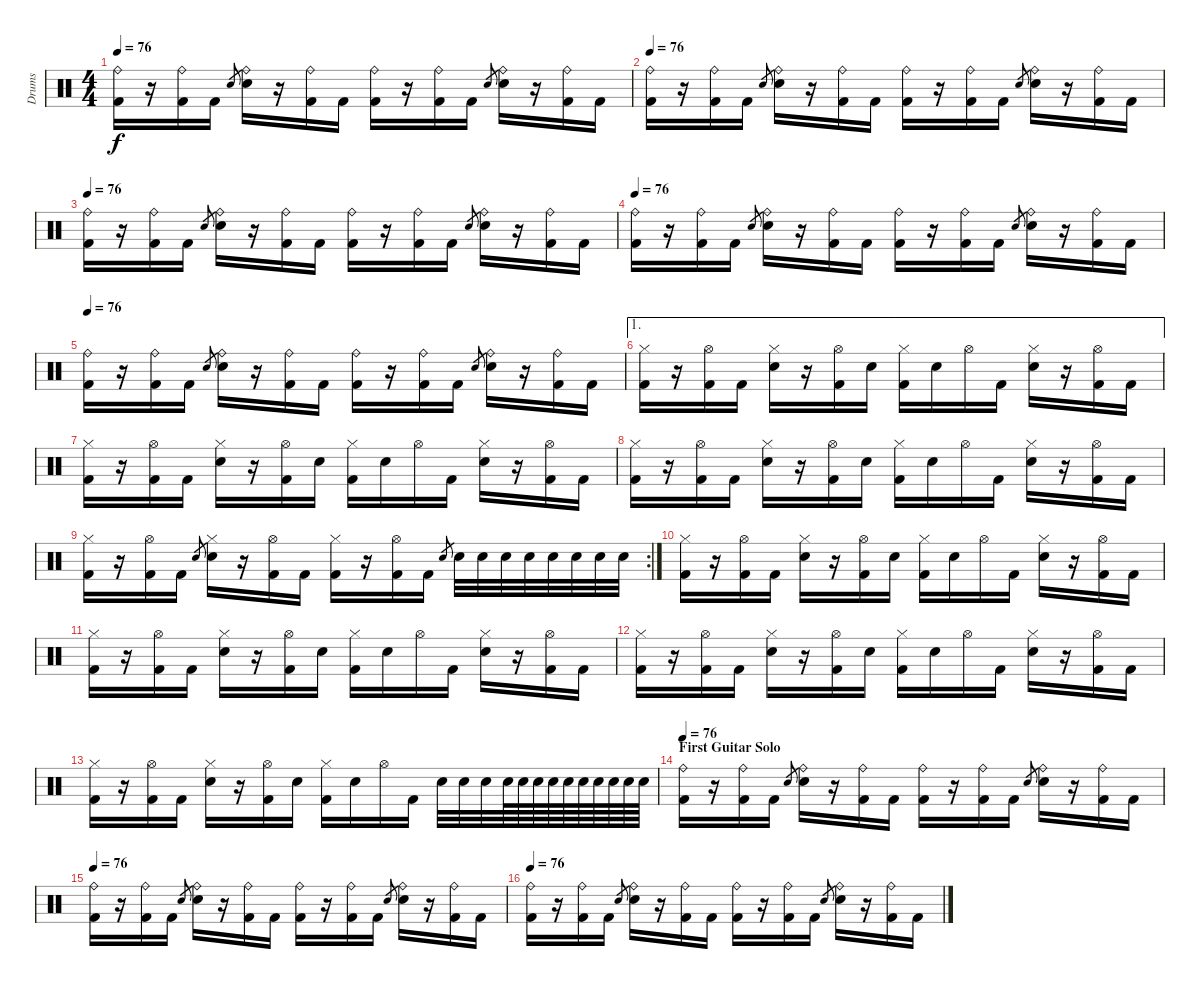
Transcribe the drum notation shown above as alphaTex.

\track ("Drums" "Drums") {instrument percussion}
\staff {score}
\articulation defaults
\ts (4 4)
\tempo 76
\clef neutral
\ks c
("Ride (bell)" "Kick (hit) 2").16{dy f} r.16 ("Ride (bell)" "Kick (hit) 2").16 "Kick (hit) 2".16 "Electric Snare (hit)".8{gr} ("Ride (bell)" "Electric Snare (hit)").16 r.16 ("Ride (bell)" "Kick (hit) 2").16 "Kick (hit) 2".16 ("Ride (bell)" "Kick (hit) 2").16 r.16 ("Ride (bell)" "Kick (hit) 2").16 "Kick (hit) 2".16 "Electric Snare (hit)".8{gr} ("Ride (bell)" "Electric Snare (hit)").16 r.16 ("Ride (bell)" "Kick (hit) 2").16 "Kick (hit) 2".16 |
\tempo 76
("Ride (bell)" "Kick (hit) 2").16 r.16 ("Ride (bell)" "Kick (hit) 2").16 "Kick (hit) 2".16 "Electric Snare (hit)".8{gr} ("Ride (bell)" "Electric Snare (hit)").16 r.16 ("Ride (bell)" "Kick (hit) 2").16 "Kick (hit) 2".16 ("Ride (bell)" "Kick (hit) 2").16 r.16 ("Ride (bell)" "Kick (hit) 2").16 "Kick (hit) 2".16 "Electric Snare (hit)".8{gr} ("Ride (bell)" "Electric Snare (hit)").16 r.16 ("Ride (bell)" "Kick (hit) 2").16 "Kick (hit) 2".16 |
\tempo 76
("Ride (bell)" "Kick (hit) 2").16 r.16 ("Ride (bell)" "Kick (hit) 2").16 "Kick (hit) 2".16 "Electric Snare (hit)".8{gr} ("Ride (bell)" "Electric Snare (hit)").16 r.16 ("Ride (bell)" "Kick (hit) 2").16 "Kick (hit) 2".16 ("Ride (bell)" "Kick (hit) 2").16 r.16 ("Ride (bell)" "Kick (hit) 2").16 "Kick (hit) 2".16 "Electric Snare (hit)".8{gr} ("Ride (bell)" "Electric Snare (hit)").16 r.16 ("Ride (bell)" "Kick (hit) 2").16 "Kick (hit) 2".16 |
\tempo 76
("Ride (bell)" "Kick (hit) 2").16 r.16 ("Ride (bell)" "Kick (hit) 2").16 "Kick (hit) 2".16 "Electric Snare (hit)".8{gr} ("Ride (bell)" "Electric Snare (hit)").16 r.16 ("Ride (bell)" "Kick (hit) 2").16 "Kick (hit) 2".16 ("Ride (bell)" "Kick (hit) 2").16 r.16 ("Ride (bell)" "Kick (hit) 2").16 "Kick (hit) 2".16 "Electric Snare (hit)".8{gr} ("Ride (bell)" "Electric Snare (hit)").16 r.16 ("Ride (bell)" "Kick (hit) 2").16 "Kick (hit) 2".16 |
\tempo 76
("Ride (bell)" "Kick (hit) 2").16 r.16 ("Ride (bell)" "Kick (hit) 2").16 "Kick (hit) 2".16 "Electric Snare (hit)".8{gr} ("Ride (bell)" "Electric Snare (hit)").16 r.16 ("Ride (bell)" "Kick (hit) 2").16 "Kick (hit) 2".16 ("Ride (bell)" "Kick (hit) 2").16 r.16 ("Ride (bell)" "Kick (hit) 2").16 "Kick (hit) 2".16 "Electric Snare (hit)".8{gr} ("Ride (bell)" "Electric Snare (hit)").16 r.16 ("Ride (bell)" "Kick (hit) 2").16 "Kick (hit) 2".16 |
\ae 1
("Hi-Hat (closed)" "Kick (hit) 2").16 r.16 ("Hi-Hat (open)" "Kick (hit) 2").16 "Kick (hit) 2".16 ("Hi-Hat (closed)" "Electric Snare (hit)").16 r.16 ("Hi-Hat (open)" "Kick (hit) 2").16 "Electric Snare (hit)".16 ("Hi-Hat (closed)" "Kick (hit) 2").16 "Electric Snare (hit)".16 "Hi-Hat (open)".16 "Kick (hit) 2".16 ("Hi-Hat (closed)" "Electric Snare (hit)").16 r.16 ("Hi-Hat (open)" "Kick (hit) 2").16 "Kick (hit) 2".16 |
("Hi-Hat (closed)" "Kick (hit) 2").16 r.16 ("Hi-Hat (open)" "Kick (hit) 2").16 "Kick (hit) 2".16 ("Hi-Hat (closed)" "Electric Snare (hit)").16 r.16 ("Hi-Hat (open)" "Kick (hit) 2").16 "Electric Snare (hit)".16 ("Hi-Hat (closed)" "Kick (hit) 2").16 "Electric Snare (hit)".16 "Hi-Hat (open)".16 "Kick (hit) 2".16 ("Hi-Hat (closed)" "Electric Snare (hit)").16 r.16 ("Hi-Hat (open)" "Kick (hit) 2").16 "Kick (hit) 2".16 |
("Hi-Hat (closed)" "Kick (hit) 2").16 r.16 ("Hi-Hat (open)" "Kick (hit) 2").16 "Kick (hit) 2".16 ("Hi-Hat (closed)" "Electric Snare (hit)").16 r.16 ("Hi-Hat (open)" "Kick (hit) 2").16 "Electric Snare (hit)".16 ("Hi-Hat (closed)" "Kick (hit) 2").16 "Electric Snare (hit)".16 "Hi-Hat (open)".16 "Kick (hit) 2".16 ("Hi-Hat (closed)" "Electric Snare (hit)").16 r.16 ("Hi-Hat (open)" "Kick (hit) 2").16 "Kick (hit) 2".16 |
\rc 2
("Hi-Hat (closed)" "Kick (hit) 2").16 r.16 ("Hi-Hat (open)" "Kick (hit) 2").16 "Kick (hit) 2".16 "Electric Snare (hit)".8{gr} ("Hi-Hat (closed)" "Electric Snare (hit)").16 r.16 ("Hi-Hat (open)" "Kick (hit) 2").16 "Kick (hit) 2".16 ("Hi-Hat (closed)" "Kick (hit) 2").16 r.16 ("Hi-Hat (open)" "Kick (hit) 2").16 "Kick (hit) 2".16 "Electric Snare (hit)".8{gr} "Electric Snare (hit)".32 "Electric Snare (hit)".32 "Electric Snare (hit)".32 "Electric Snare (hit)".32 "Electric Snare (hit)".32 "Electric Snare (hit)".32 "Electric Snare (hit)".32 "Electric Snare (hit)".32 |
("Hi-Hat (closed)" "Kick (hit) 2").16 r.16 ("Hi-Hat (open)" "Kick (hit) 2").16 "Kick (hit) 2".16 ("Hi-Hat (closed)" "Electric Snare (hit)").16 r.16 ("Hi-Hat (open)" "Kick (hit) 2").16 "Electric Snare (hit)".16 ("Hi-Hat (closed)" "Kick (hit) 2").16 "Electric Snare (hit)".16 "Hi-Hat (open)".16 "Kick (hit) 2".16 ("Hi-Hat (closed)" "Electric Snare (hit)").16 r.16 ("Hi-Hat (open)" "Kick (hit) 2").16 "Kick (hit) 2".16 |
("Hi-Hat (closed)" "Kick (hit) 2").16 r.16 ("Hi-Hat (open)" "Kick (hit) 2").16 "Kick (hit) 2".16 ("Hi-Hat (closed)" "Electric Snare (hit)").16 r.16 ("Hi-Hat (open)" "Kick (hit) 2").16 "Electric Snare (hit)".16 ("Hi-Hat (closed)" "Kick (hit) 2").16 "Electric Snare (hit)".16 "Hi-Hat (open)".16 "Kick (hit) 2".16 ("Hi-Hat (closed)" "Electric Snare (hit)").16 r.16 ("Hi-Hat (open)" "Kick (hit) 2").16 "Kick (hit) 2".16 |
("Hi-Hat (closed)" "Kick (hit) 2").16 r.16 ("Hi-Hat (open)" "Kick (hit) 2").16 "Kick (hit) 2".16 ("Hi-Hat (closed)" "Electric Snare (hit)").16 r.16 ("Hi-Hat (open)" "Kick (hit) 2").16 "Electric Snare (hit)".16 ("Hi-Hat (closed)" "Kick (hit) 2").16 "Electric Snare (hit)".16 "Hi-Hat (open)".16 "Kick (hit) 2".16 ("Hi-Hat (closed)" "Electric Snare (hit)").16 r.16 ("Hi-Hat (open)" "Kick (hit) 2").16 "Kick (hit) 2".16 |
("Hi-Hat (closed)" "Kick (hit) 2").16 r.16 ("Hi-Hat (open)" "Kick (hit) 2").16 "Kick (hit) 2".16 ("Hi-Hat (closed)" "Electric Snare (hit)").16 r.16 ("Hi-Hat (open)" "Kick (hit) 2").16 "Electric Snare (hit)".16 ("Hi-Hat (closed)" "Kick (hit) 2").16 "Electric Snare (hit)".16 "Hi-Hat (open)".16 "Kick (hit) 2".16 "Electric Snare (hit)".32 "Electric Snare (hit)".32 "Electric Snare (hit)".32 "Electric Snare (hit)".64 "Electric Snare (hit)".64 "Electric Snare (hit)".64 "Electric Snare (hit)".64 "Electric Snare (hit)".64 "Electric Snare (hit)".64 "Electric Snare (hit)".64 "Electric Snare (hit)".64 "Electric Snare (hit)".64 "Electric Snare (hit)".64 |
\section ("" "First Guitar Solo")
\tempo 76
("Ride (bell)" "Kick (hit) 2").16 r.16 ("Ride (bell)" "Kick (hit) 2").16 "Kick (hit) 2".16 "Electric Snare (hit)".8{gr} ("Ride (bell)" "Electric Snare (hit)").16 r.16 ("Ride (bell)" "Kick (hit) 2").16 "Kick (hit) 2".16 ("Ride (bell)" "Kick (hit) 2").16 r.16 ("Ride (bell)" "Kick (hit) 2").16 "Kick (hit) 2".16 "Electric Snare (hit)".8{gr} ("Ride (bell)" "Electric Snare (hit)").16 r.16 ("Ride (bell)" "Kick (hit) 2").16 "Kick (hit) 2".16 |
\tempo 76
("Ride (bell)" "Kick (hit) 2").16 r.16 ("Ride (bell)" "Kick (hit) 2").16 "Kick (hit) 2".16 "Electric Snare (hit)".8{gr} ("Ride (bell)" "Electric Snare (hit)").16 r.16 ("Ride (bell)" "Kick (hit) 2").16 "Kick (hit) 2".16 ("Ride (bell)" "Kick (hit) 2").16 r.16 ("Ride (bell)" "Kick (hit) 2").16 "Kick (hit) 2".16 "Electric Snare (hit)".8{gr} ("Ride (bell)" "Electric Snare (hit)").16 r.16 ("Ride (bell)" "Kick (hit) 2").16 "Kick (hit) 2".16 |
\tempo 76
("Ride (bell)" "Kick (hit) 2").16 r.16 ("Ride (bell)" "Kick (hit) 2").16 "Kick (hit) 2".16 "Electric Snare (hit)".8{gr} ("Ride (bell)" "Electric Snare (hit)").16 r.16 ("Ride (bell)" "Kick (hit) 2").16 "Kick (hit) 2".16 ("Ride (bell)" "Kick (hit) 2").16 r.16 ("Ride (bell)" "Kick (hit) 2").16 "Kick (hit) 2".16 "Electric Snare (hit)".8{gr} ("Ride (bell)" "Electric Snare (hit)").16 r.16 ("Ride (bell)" "Kick (hit) 2").16 "Kick (hit) 2".16
